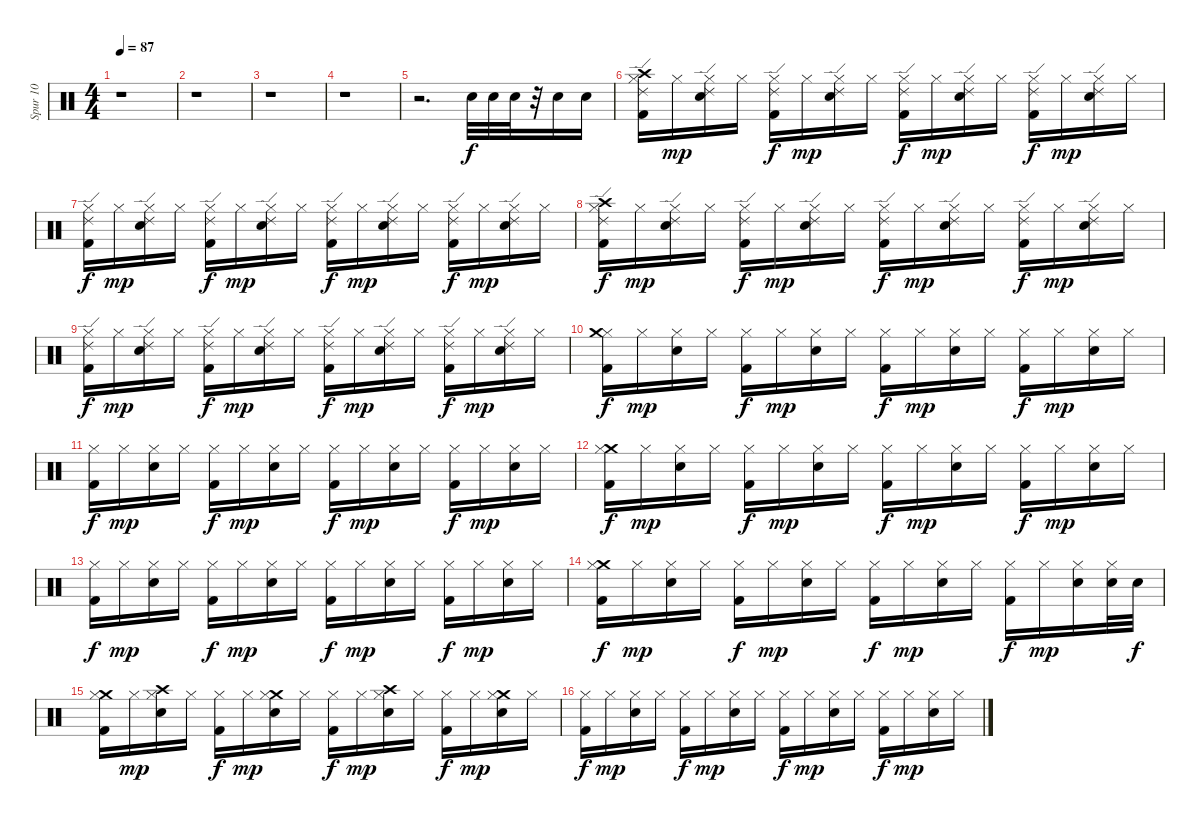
\track ("Spur 10" "Spur 10") {instrument percussion}
\staff {score}
\articulation defaults
\ts (4 4)
\tempo 87
\clef neutral
\ks c
r.1{dy f} |
r.1 |
r.1 |
r.1 |
r.2{d} "Electric Snare (hit)".32 "Electric Snare (hit)".32 "Electric Snare (hit)".32 r.32 "Electric Snare (hit)".16 "Electric Snare (hit)".16 |
("Hi-Hat (closed)" "Crash high (hit)" "Ride (edge) 2" "Kick (hit) 2").16 "Hi-Hat (closed)".16{dy mp} ("Hi-Hat (closed)" "Ride (edge) 2" "Electric Snare (hit)").16 "Hi-Hat (closed)".16 ("Hi-Hat (closed)" "Ride (edge) 2" "Kick (hit) 2").16{dy f} "Hi-Hat (closed)".16{dy mp} ("Hi-Hat (closed)" "Electric Snare (hit)" "Ride (edge) 2").16 "Hi-Hat (closed)".16 ("Hi-Hat (closed)" "Ride (edge) 2" "Kick (hit) 2").16{dy f} "Hi-Hat (closed)".16{dy mp} ("Hi-Hat (closed)" "Ride (edge) 2" "Electric Snare (hit)").16 "Hi-Hat (closed)".16 ("Hi-Hat (closed)" "Ride (edge) 2" "Kick (hit) 2").16{dy f} "Hi-Hat (closed)".16{dy mp} ("Hi-Hat (closed)" "Ride (edge) 2" "Electric Snare (hit)").16 "Hi-Hat (closed)".16 |
("Hi-Hat (closed)" "Ride (edge) 2" "Kick (hit) 2").16{dy f} "Hi-Hat (closed)".16{dy mp} ("Hi-Hat (closed)" "Ride (edge) 2" "Electric Snare (hit)").16 "Hi-Hat (closed)".16 ("Hi-Hat (closed)" "Ride (edge) 2" "Kick (hit) 2").16{dy f} "Hi-Hat (closed)".16{dy mp} ("Hi-Hat (closed)" "Electric Snare (hit)" "Ride (edge) 2").16 "Hi-Hat (closed)".16 ("Hi-Hat (closed)" "Ride (edge) 2" "Kick (hit) 2").16{dy f} "Hi-Hat (closed)".16{dy mp} ("Hi-Hat (closed)" "Ride (edge) 2" "Electric Snare (hit)").16 "Hi-Hat (closed)".16 ("Hi-Hat (closed)" "Ride (edge) 2" "Kick (hit) 2").16{dy f} "Hi-Hat (closed)".16{dy mp} ("Hi-Hat (closed)" "Ride (edge) 2" "Electric Snare (hit)").16 "Hi-Hat (closed)".16 |
("Hi-Hat (closed)" "Crash high (hit)" "Ride (edge) 2" "Kick (hit) 2").16{dy f} "Hi-Hat (closed)".16{dy mp} ("Hi-Hat (closed)" "Ride (edge) 2" "Electric Snare (hit)").16 "Hi-Hat (closed)".16 ("Hi-Hat (closed)" "Ride (edge) 2" "Kick (hit) 2").16{dy f} "Hi-Hat (closed)".16{dy mp} ("Hi-Hat (closed)" "Electric Snare (hit)" "Ride (edge) 2").16 "Hi-Hat (closed)".16 ("Hi-Hat (closed)" "Ride (edge) 2" "Kick (hit) 2").16{dy f} "Hi-Hat (closed)".16{dy mp} ("Hi-Hat (closed)" "Ride (edge) 2" "Electric Snare (hit)").16 "Hi-Hat (closed)".16 ("Hi-Hat (closed)" "Ride (edge) 2" "Kick (hit) 2").16{dy f} "Hi-Hat (closed)".16{dy mp} ("Hi-Hat (closed)" "Ride (edge) 2" "Electric Snare (hit)").16 "Hi-Hat (closed)".16 |
("Hi-Hat (closed)" "Ride (edge) 2" "Kick (hit) 2").16{dy f} "Hi-Hat (closed)".16{dy mp} ("Hi-Hat (closed)" "Ride (edge) 2" "Electric Snare (hit)").16 "Hi-Hat (closed)".16 ("Hi-Hat (closed)" "Ride (edge) 2" "Kick (hit) 2").16{dy f} "Hi-Hat (closed)".16{dy mp} ("Hi-Hat (closed)" "Electric Snare (hit)" "Ride (edge) 2").16 "Hi-Hat (closed)".16 ("Hi-Hat (closed)" "Ride (edge) 2" "Kick (hit) 2").16{dy f} "Hi-Hat (closed)".16{dy mp} ("Hi-Hat (closed)" "Ride (edge) 2" "Electric Snare (hit)").16 "Hi-Hat (closed)".16 ("Hi-Hat (closed)" "Ride (edge) 2" "Kick (hit) 2").16{dy f} "Hi-Hat (closed)".16{dy mp} ("Hi-Hat (closed)" "Ride (edge) 2" "Electric Snare (hit)").16 "Hi-Hat (closed)".16 |
("Hi-Hat (closed)" "Crash medium (hit)" "Kick (hit) 2").16{dy f} "Hi-Hat (closed)".16{dy mp} ("Hi-Hat (closed)" "Electric Snare (hit)").16 "Hi-Hat (closed)".16 ("Hi-Hat (closed)" "Kick (hit) 2").16{dy f} "Hi-Hat (closed)".16{dy mp} ("Hi-Hat (closed)" "Electric Snare (hit)").16 "Hi-Hat (closed)".16 ("Hi-Hat (closed)" "Kick (hit) 2").16{dy f} "Hi-Hat (closed)".16{dy mp} ("Hi-Hat (closed)" "Electric Snare (hit)").16 "Hi-Hat (closed)".16 ("Hi-Hat (closed)" "Kick (hit) 2").16{dy f} "Hi-Hat (closed)".16{dy mp} ("Hi-Hat (closed)" "Electric Snare (hit)").16 "Hi-Hat (closed)".16 |
("Hi-Hat (closed)" "Kick (hit) 2").16{dy f} "Hi-Hat (closed)".16{dy mp} ("Hi-Hat (closed)" "Electric Snare (hit)").16 "Hi-Hat (closed)".16 ("Hi-Hat (closed)" "Kick (hit) 2").16{dy f} "Hi-Hat (closed)".16{dy mp} ("Hi-Hat (closed)" "Electric Snare (hit)").16 "Hi-Hat (closed)".16 ("Hi-Hat (closed)" "Kick (hit) 2").16{dy f} "Hi-Hat (closed)".16{dy mp} ("Hi-Hat (closed)" "Electric Snare (hit)").16 "Hi-Hat (closed)".16 ("Hi-Hat (closed)" "Kick (hit) 2").16{dy f} "Hi-Hat (closed)".16{dy mp} ("Hi-Hat (closed)" "Electric Snare (hit)").16 "Hi-Hat (closed)".16 |
("Crash medium (hit)" "Hi-Hat (closed)" "Kick (hit) 2").16{dy f} "Hi-Hat (closed)".16{dy mp} ("Hi-Hat (closed)" "Electric Snare (hit)").16 "Hi-Hat (closed)".16 ("Hi-Hat (closed)" "Kick (hit) 2").16{dy f} "Hi-Hat (closed)".16{dy mp} ("Hi-Hat (closed)" "Electric Snare (hit)").16 "Hi-Hat (closed)".16 ("Hi-Hat (closed)" "Kick (hit) 2").16{dy f} "Hi-Hat (closed)".16{dy mp} ("Hi-Hat (closed)" "Electric Snare (hit)").16 "Hi-Hat (closed)".16 ("Hi-Hat (closed)" "Kick (hit) 2").16{dy f} "Hi-Hat (closed)".16{dy mp} ("Hi-Hat (closed)" "Electric Snare (hit)").16 "Hi-Hat (closed)".16 |
("Hi-Hat (closed)" "Kick (hit) 2").16{dy f} "Hi-Hat (closed)".16{dy mp} ("Hi-Hat (closed)" "Electric Snare (hit)").16 "Hi-Hat (closed)".16 ("Hi-Hat (closed)" "Kick (hit) 2").16{dy f} "Hi-Hat (closed)".16{dy mp} ("Hi-Hat (closed)" "Electric Snare (hit)").16 "Hi-Hat (closed)".16 ("Hi-Hat (closed)" "Kick (hit) 2").16{dy f} "Hi-Hat (closed)".16{dy mp} ("Hi-Hat (closed)" "Electric Snare (hit)").16 "Hi-Hat (closed)".16 ("Hi-Hat (closed)" "Kick (hit) 2").16{dy f} "Hi-Hat (closed)".16{dy mp} ("Hi-Hat (closed)" "Electric Snare (hit)").16 "Hi-Hat (closed)".16 |
("Crash medium (hit)" "Hi-Hat (closed)" "Kick (hit) 2").16{dy f} "Hi-Hat (closed)".16{dy mp} ("Hi-Hat (closed)" "Electric Snare (hit)").16 "Hi-Hat (closed)".16 ("Hi-Hat (closed)" "Kick (hit) 2").16{dy f} "Hi-Hat (closed)".16{dy mp} ("Hi-Hat (closed)" "Electric Snare (hit)").16 "Hi-Hat (closed)".16 ("Hi-Hat (closed)" "Kick (hit) 2").16{dy f} "Hi-Hat (closed)".16{dy mp} ("Hi-Hat (closed)" "Electric Snare (hit)").16 "Hi-Hat (closed)".16 ("Hi-Hat (closed)" "Kick (hit) 2").16{dy f} "Hi-Hat (closed)".16{dy mp} ("Electric Snare (hit)" "Hi-Hat (closed)").16 ("Electric Snare (hit)" "Hi-Hat (closed)").32 "Electric Snare (hit)".32{dy f} |
("Crash medium (hit)" "Hi-Hat (closed)" "Kick (hit) 2").16 "Hi-Hat (closed)".16{dy mp} ("Crash high (hit)" "Hi-Hat (closed)" "Electric Snare (hit)").16 "Hi-Hat (closed)".16 ("Hi-Hat (closed)" "Kick (hit) 2").16{dy f} "Hi-Hat (closed)".16{dy mp} ("Crash medium (hit)" "Hi-Hat (closed)" "Electric Snare (hit)").16 "Hi-Hat (closed)".16 ("Hi-Hat (closed)" "Kick (hit) 2").16{dy f} "Hi-Hat (closed)".16{dy mp} ("Crash high (hit)" "Hi-Hat (closed)" "Electric Snare (hit)").16 "Hi-Hat (closed)".16 ("Hi-Hat (closed)" "Kick (hit) 2").16{dy f} "Hi-Hat (closed)".16{dy mp} ("Crash medium (hit)" "Hi-Hat (closed)" "Electric Snare (hit)").16 "Hi-Hat (closed)".16 |
("Hi-Hat (closed)" "Kick (hit) 2").16{dy f} "Hi-Hat (closed)".16{dy mp} ("Hi-Hat (closed)" "Electric Snare (hit)").16 "Hi-Hat (closed)".16 ("Hi-Hat (closed)" "Kick (hit) 2").16{dy f} "Hi-Hat (closed)".16{dy mp} ("Hi-Hat (closed)" "Electric Snare (hit)").16 "Hi-Hat (closed)".16 ("Hi-Hat (closed)" "Kick (hit) 2").16{dy f} "Hi-Hat (closed)".16{dy mp} ("Hi-Hat (closed)" "Electric Snare (hit)").16 "Hi-Hat (closed)".16 ("Hi-Hat (closed)" "Kick (hit) 2").16{dy f} "Hi-Hat (closed)".16{dy mp} ("Hi-Hat (closed)" "Electric Snare (hit)").16 "Hi-Hat (closed)".16
